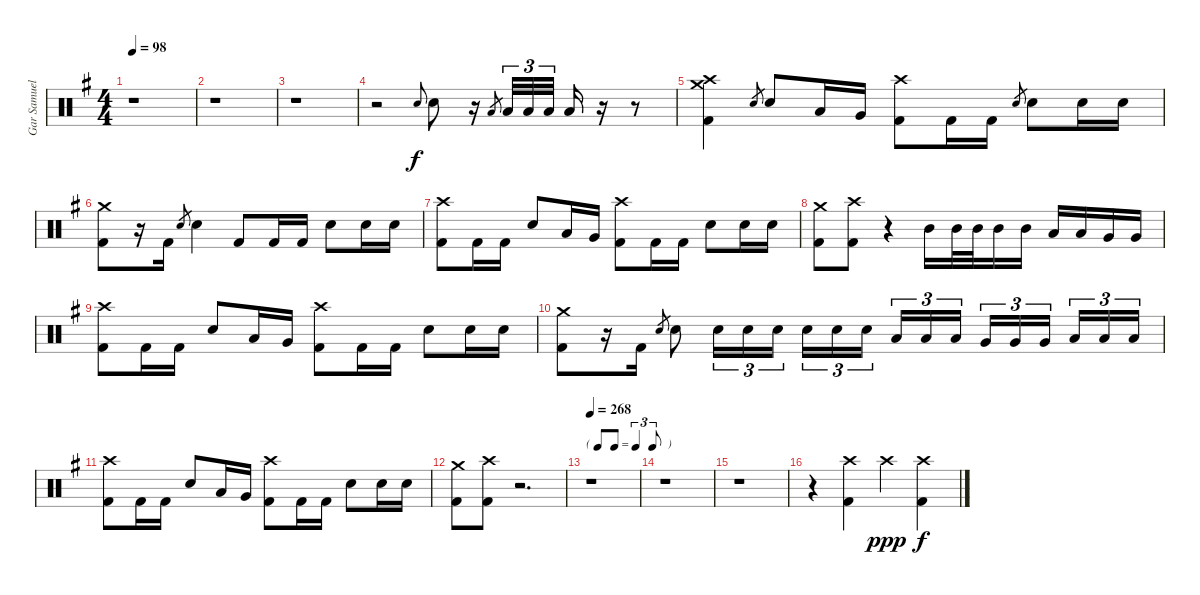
\track ("Gar Samuelson" "Gar Samuel") {instrument percussion}
\staff {score}
\articulation defaults
\ts (4 4)
\tempo 98
\clef neutral
\ks g
r.1{dy f} |
r.1 |
r.1 |
r.2 "Snare (hit) 2".8{gr onbeat} "Snare (hit) 2".8 r.16 "Low Floor Tom (hit)".8{gr} "Low Floor Tom (hit)".32{tu (3 2)} "Low Floor Tom (hit)".32{tu (3 2)} "Low Floor Tom (hit)".32{tu (3 2)} "Low Floor Tom (hit)".16 r.16 r.8 |
("Crash high (hit)" "Crash medium (hit)" "Kick (hit) 2").4 "Snare (hit) 2".8{gr} "Snare (hit) 2".8 "Low Tom (hit)".16 "Very Low Tom (hit)".16 ("Crash high (hit)" "Kick (hit) 2").8 "Kick (hit) 2".16 "Kick (hit) 2".16 "Snare (hit) 2".8{gr} "Snare (hit) 2".8 "Snare (hit) 2".16 "Snare (hit) 2".16 |
("Crash medium (hit)" "Kick (hit) 2").8 r.16 "Kick (hit) 2".16 "Snare (hit) 2".8{gr} "Snare (hit) 2".4 "Kick (hit) 2".8 "Kick (hit) 2".16 "Kick (hit) 2".16 "Snare (hit) 2".8 "Snare (hit) 2".16 "Snare (hit) 2".16 |
("Crash high (hit)" "Kick (hit) 2").8 "Kick (hit) 2".16 "Kick (hit) 2".16 "Snare (hit) 2".8 "Low Tom (hit)".16 "Very Low Tom (hit)".16 ("Crash high (hit)" "Kick (hit) 2").8 "Kick (hit) 2".16 "Kick (hit) 2".16 "Snare (hit) 2".8 "Snare (hit) 2".16 "Snare (hit) 2".16 |
("Crash medium (hit)" "Kick (hit) 2").8 ("Crash high (hit)" "Kick (hit) 2").8 r.4 "Mid Tom (hit)".16 "Mid Tom (hit)".32 "Mid Tom (hit)".32 "Mid Tom (hit)".16 "Mid Tom (hit)".16 "Low Tom (hit)".16 "Low Tom (hit)".16 "Very Low Tom (hit)".16 "Very Low Tom (hit)".16 |
("Crash high (hit)" "Kick (hit) 2").8 "Kick (hit) 2".16 "Kick (hit) 2".16 "Snare (hit) 2".8 "Low Tom (hit)".16 "Very Low Tom (hit)".16 ("Crash high (hit)" "Kick (hit) 2").8 "Kick (hit) 2".16 "Kick (hit) 2".16 "Snare (hit) 2".8 "Snare (hit) 2".16 "Snare (hit) 2".16 |
("Crash medium (hit)" "Kick (hit) 2").8 r.16 "Kick (hit) 2".16 "Snare (hit) 2".8{gr} "Snare (hit) 2".8 "Snare (hit) 2".16{tu (3 2)} "Snare (hit) 2".16{tu (3 2)} "Snare (hit) 2".16{tu (3 2)} "Snare (hit) 2".16{tu (3 2)} "Snare (hit) 2".16{tu (3 2)} "Snare (hit) 2".16{tu (3 2) beam splitsecondary} "Low Tom (hit)".16{tu (3 2)} "Low Tom (hit)".16{tu (3 2)} "Low Tom (hit)".16{tu (3 2)} "Very Low Tom (hit)".16{tu (3 2)} "Very Low Tom (hit)".16{tu (3 2)} "Very Low Tom (hit)".16{tu (3 2) beam splitsecondary} "Low Floor Tom (hit)".16{tu (3 2)} "Low Floor Tom (hit)".16{tu (3 2)} "Low Floor Tom (hit)".16{tu (3 2)} |
("Crash high (hit)" "Kick (hit) 2").8 "Kick (hit) 2".16 "Kick (hit) 2".16 "Snare (hit) 2".8 "Low Tom (hit)".16 "Very Low Tom (hit)".16 ("Crash high (hit)" "Kick (hit) 2").8 "Kick (hit) 2".16 "Kick (hit) 2".16 "Snare (hit) 2".8 "Snare (hit) 2".16 "Snare (hit) 2".16 |
("Crash medium (hit)" "Kick (hit) 2").8 ("Crash high (hit)" "Kick (hit) 2").8 r.2{d} |
\tf triplet8th
\tempo 287
\tempo 268
r.1 |
r.1 |
r.1 |
r.4 ("Crash high (hit)" "Kick (hit) 2").4 "Crash high (hit)".4{dy ppp} ("Crash high (hit)" "Kick (hit) 2").4{dy f}
